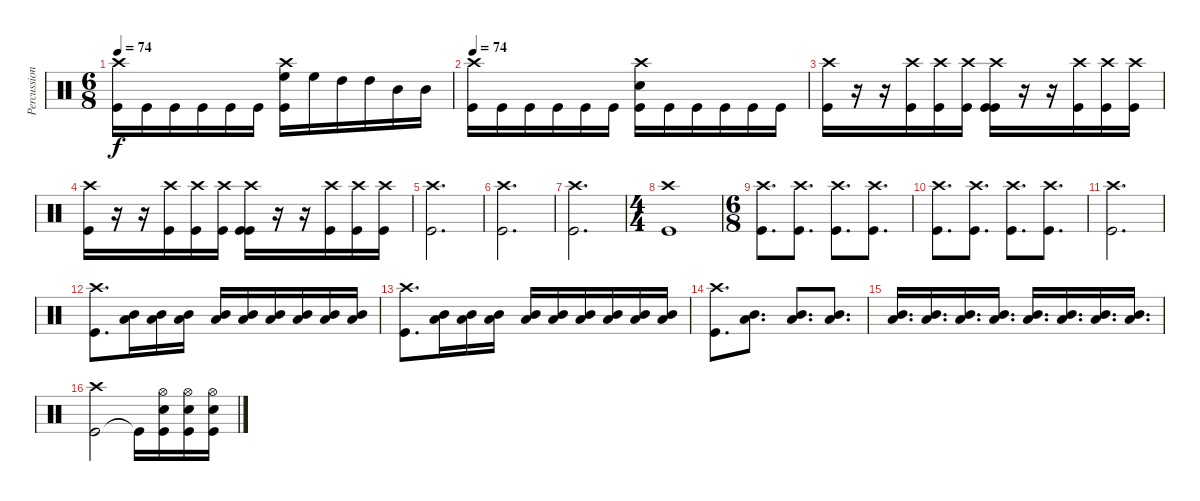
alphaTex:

\track ("Percussioni" "Percussion") {instrument percussion}
\staff {score}
\articulation defaults
\ts (6 8)
\tempo 74
\clef neutral
\ks c
("Crash high (hit)" "Kick (hit)").16{dy f} "Kick (hit)".16 "Kick (hit)".16 "Kick (hit)".16 "Kick (hit)".16 "Kick (hit)".16 ("Crash high (hit)" "Kick (hit)" "High Floor Tom (hit)").16 "High Floor Tom (hit)".16 "High Tom (hit)".16 "High Tom (hit)".16 "Mid Tom (hit)".16 "Mid Tom (hit)".16 |
\tempo 74
("Crash high (hit)" "Kick (hit)").16 "Kick (hit)".16 "Kick (hit)".16 "Kick (hit)".16 "Kick (hit)".16 "Kick (hit)".16 ("Crash high (hit)" "Snare (hit) 2" "Kick (hit)").16 "Kick (hit)".16 "Kick (hit)".16 "Kick (hit)".16 "Kick (hit)".16 "Kick (hit)".16 |
("Crash high (hit)" "Kick (hit)").16 r.16 r.16 ("Crash high (hit)" "Kick (hit)").16 ("Crash high (hit)" "Kick (hit)").16 ("Crash high (hit)" "Kick (hit)").16 ("Crash high (hit)" "Kick (hit)" "Kick (hit)").16 r.16 r.16 ("Crash high (hit)" "Kick (hit)").16 ("Crash high (hit)" "Kick (hit)").16 ("Crash high (hit)" "Kick (hit)").16 |
("Crash high (hit)" "Kick (hit)").16 r.16 r.16 ("Crash high (hit)" "Kick (hit)").16 ("Crash high (hit)" "Kick (hit)").16 ("Crash high (hit)" "Kick (hit)").16 ("Crash high (hit)" "Kick (hit)" "Kick (hit)").16 r.16 r.16 ("Crash high (hit)" "Kick (hit)").16 ("Crash high (hit)" "Kick (hit)").16 ("Crash high (hit)" "Kick (hit)").16 |
("Crash high (hit)" "Kick (hit)").2{d} |
("Crash high (hit)" "Kick (hit)").2{d} |
("Crash high (hit)" "Kick (hit)").2{d} |
\ts (4 4)
("Crash high (hit)" "Kick (hit)").1 |
\ts (6 8)
("Crash high (hit)" "Kick (hit)").8{d} ("Crash high (hit)" "Kick (hit)").8{d} ("Crash high (hit)" "Kick (hit)").8{d} ("Crash high (hit)" "Kick (hit)").8{d} |
("Crash high (hit)" "Kick (hit)").8{d} ("Crash high (hit)" "Kick (hit)").8{d} ("Crash high (hit)" "Kick (hit)").8{d} ("Crash high (hit)" "Kick (hit)").8{d} |
("Crash high (hit)" "Kick (hit)").2{d} |
("Crash high (hit)" "Kick (hit)").8{d} ("Mid Tom (hit)" "Low Tom (hit)").16 ("Mid Tom (hit)" "Low Tom (hit)").16 ("Mid Tom (hit)" "Low Tom (hit)").16 ("Mid Tom (hit)" "Low Tom (hit)").16 ("Mid Tom (hit)" "Low Tom (hit)").16 ("Mid Tom (hit)" "Low Tom (hit)").16 ("Mid Tom (hit)" "Low Tom (hit)").16 ("Mid Tom (hit)" "Low Tom (hit)").16 ("Mid Tom (hit)" "Low Tom (hit)").16 |
("Crash high (hit)" "Kick (hit)").8{d} ("Mid Tom (hit)" "Low Tom (hit)").16 ("Mid Tom (hit)" "Low Tom (hit)").16 ("Mid Tom (hit)" "Low Tom (hit)").16 ("Mid Tom (hit)" "Low Tom (hit)").16 ("Mid Tom (hit)" "Low Tom (hit)").16 ("Mid Tom (hit)" "Low Tom (hit)").16 ("Mid Tom (hit)" "Low Tom (hit)").16 ("Mid Tom (hit)" "Low Tom (hit)").16 ("Mid Tom (hit)" "Low Tom (hit)").16 |
("Kick (hit)" "Crash high (hit)").8{d} ("Mid Tom (hit)" "Low Tom (hit)").8{d} ("Mid Tom (hit)" "Low Tom (hit)").8{d} ("Mid Tom (hit)" "Low Tom (hit)").8{d} |
("Mid Tom (hit)" "Low Tom (hit)").16{d} ("Mid Tom (hit)" "Low Tom (hit)").16{d} ("Mid Tom (hit)" "Low Tom (hit)").16{d} ("Mid Tom (hit)" "Low Tom (hit)").16{d} ("Mid Tom (hit)" "Low Tom (hit)").16{d} ("Mid Tom (hit)" "Low Tom (hit)").16{d} ("Mid Tom (hit)" "Low Tom (hit)").16{d} ("Mid Tom (hit)" "Low Tom (hit)").16{d} |
("Kick (hit)" "Crash high (hit)").2 "Kick (hit)"{t}.16 ("Hi-Hat (open)" "Snare (hit) 2" "Kick (hit)").16 ("Hi-Hat (open)" "Snare (hit) 2" "Kick (hit)").16 ("Hi-Hat (open)" "Snare (hit) 2" "Kick (hit)").16
